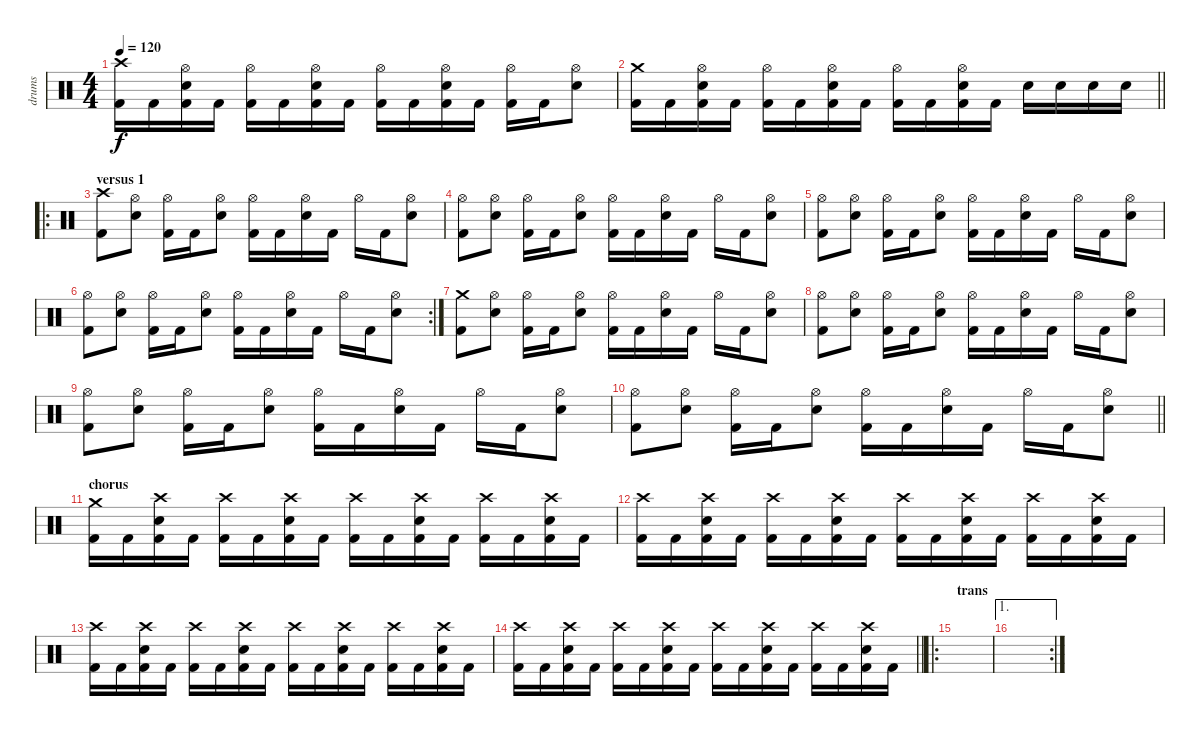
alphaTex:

\track ("drums" "drums") {instrument percussion}
\staff {score}
\articulation defaults
\ts (4 4)
\tempo 120
\clef neutral
\ks c
("Crash high (hit)" "Kick (hit) 2").16{dy f} "Kick (hit) 2".16 ("Hi-Hat (open)" "Snare (hit) 2" "Kick (hit) 2").16 "Kick (hit) 2".16 ("Hi-Hat (open)" "Kick (hit) 2").16 "Kick (hit) 2".16 ("Hi-Hat (open)" "Snare (hit) 2" "Kick (hit) 2").16 "Kick (hit) 2".16 ("Hi-Hat (open)" "Kick (hit) 2").16 "Kick (hit) 2".16 ("Hi-Hat (open)" "Snare (hit) 2" "Kick (hit) 2").16 "Kick (hit) 2".16 ("Hi-Hat (open)" "Kick (hit) 2").16 "Kick (hit) 2".16 ("Hi-Hat (open)" "Snare (hit) 2").8 |
\barLineRight lightlight
("Crash medium (hit)" "Kick (hit) 2").16 "Kick (hit) 2".16 ("Hi-Hat (open)" "Snare (hit) 2" "Kick (hit) 2").16 "Kick (hit) 2".16 ("Hi-Hat (open)" "Kick (hit) 2").16 "Kick (hit) 2".16 ("Hi-Hat (open)" "Snare (hit) 2" "Kick (hit) 2").16 "Kick (hit) 2".16 ("Hi-Hat (open)" "Kick (hit) 2").16 "Kick (hit) 2".16 ("Hi-Hat (open)" "Snare (hit) 2" "Kick (hit) 2").16 "Kick (hit) 2".16 "Snare (hit) 2".16 "Snare (hit) 2".16 "Snare (hit) 2".16 "Snare (hit) 2".16 |
\ro
\section ("" "versus 1")
("Crash high (hit)" "Kick (hit) 2").8 ("Hi-Hat (open)" "Snare (hit) 2").8 ("Hi-Hat (open)" "Kick (hit) 2").16 "Kick (hit) 2".16 ("Hi-Hat (open)" "Snare (hit) 2").8 ("Hi-Hat (open)" "Kick (hit) 2").16 "Kick (hit) 2".16 ("Hi-Hat (open)" "Snare (hit) 2").16 "Kick (hit) 2".16 "Hi-Hat (open)".16 "Kick (hit) 2".16 ("Hi-Hat (open)" "Snare (hit) 2").8 |
("Hi-Hat (open)" "Kick (hit) 2").8 ("Hi-Hat (open)" "Snare (hit) 2").8 ("Hi-Hat (open)" "Kick (hit) 2").16 "Kick (hit) 2".16 ("Hi-Hat (open)" "Snare (hit) 2").8 ("Hi-Hat (open)" "Kick (hit) 2").16 "Kick (hit) 2".16 ("Hi-Hat (open)" "Snare (hit) 2").16 "Kick (hit) 2".16 "Hi-Hat (open)".16 "Kick (hit) 2".16 ("Hi-Hat (open)" "Snare (hit) 2").8 |
("Hi-Hat (open)" "Kick (hit) 2").8 ("Hi-Hat (open)" "Snare (hit) 2").8 ("Hi-Hat (open)" "Kick (hit) 2").16 "Kick (hit) 2".16 ("Hi-Hat (open)" "Snare (hit) 2").8 ("Hi-Hat (open)" "Kick (hit) 2").16 "Kick (hit) 2".16 ("Hi-Hat (open)" "Snare (hit) 2").16 "Kick (hit) 2".16 "Hi-Hat (open)".16 "Kick (hit) 2".16 ("Hi-Hat (open)" "Snare (hit) 2").8 |
\rc 2
("Hi-Hat (open)" "Kick (hit) 2").8 ("Hi-Hat (open)" "Snare (hit) 2").8 ("Hi-Hat (open)" "Kick (hit) 2").16 "Kick (hit) 2".16 ("Hi-Hat (open)" "Snare (hit) 2").8 ("Hi-Hat (open)" "Kick (hit) 2").16 "Kick (hit) 2".16 ("Hi-Hat (open)" "Snare (hit) 2").16 "Kick (hit) 2".16 "Hi-Hat (open)".16 "Kick (hit) 2".16 ("Hi-Hat (open)" "Snare (hit) 2").8 |
("Crash medium (hit)" "Kick (hit) 2").8 ("Hi-Hat (open)" "Snare (hit) 2").8 ("Hi-Hat (open)" "Kick (hit) 2").16 "Kick (hit) 2".16 ("Hi-Hat (open)" "Snare (hit) 2").8 ("Hi-Hat (open)" "Kick (hit) 2").16 "Kick (hit) 2".16 ("Hi-Hat (open)" "Snare (hit) 2").16 "Kick (hit) 2".16 "Hi-Hat (open)".16 "Kick (hit) 2".16 ("Hi-Hat (open)" "Snare (hit) 2").8 |
("Hi-Hat (open)" "Kick (hit) 2").8 ("Hi-Hat (open)" "Snare (hit) 2").8 ("Hi-Hat (open)" "Kick (hit) 2").16 "Kick (hit) 2".16 ("Hi-Hat (open)" "Snare (hit) 2").8 ("Hi-Hat (open)" "Kick (hit) 2").16 "Kick (hit) 2".16 ("Hi-Hat (open)" "Snare (hit) 2").16 "Kick (hit) 2".16 "Hi-Hat (open)".16 "Kick (hit) 2".16 ("Hi-Hat (open)" "Snare (hit) 2").8 |
("Hi-Hat (open)" "Kick (hit) 2").8 ("Hi-Hat (open)" "Snare (hit) 2").8 ("Hi-Hat (open)" "Kick (hit) 2").16 "Kick (hit) 2".16 ("Hi-Hat (open)" "Snare (hit) 2").8 ("Hi-Hat (open)" "Kick (hit) 2").16 "Kick (hit) 2".16 ("Hi-Hat (open)" "Snare (hit) 2").16 "Kick (hit) 2".16 "Hi-Hat (open)".16 "Kick (hit) 2".16 ("Hi-Hat (open)" "Snare (hit) 2").8 |
\barLineRight lightlight
("Hi-Hat (open)" "Kick (hit) 2").8 ("Hi-Hat (open)" "Snare (hit) 2").8 ("Hi-Hat (open)" "Kick (hit) 2").16 "Kick (hit) 2".16 ("Hi-Hat (open)" "Snare (hit) 2").8 ("Hi-Hat (open)" "Kick (hit) 2").16 "Kick (hit) 2".16 ("Hi-Hat (open)" "Snare (hit) 2").16 "Kick (hit) 2".16 "Hi-Hat (open)".16 "Kick (hit) 2".16 ("Hi-Hat (open)" "Snare (hit) 2").8 |
\section ("" "chorus")
("Crash medium (hit)" "Kick (hit) 2").16 "Kick (hit) 2".16 ("Crash high (hit)" "Snare (hit) 2" "Kick (hit) 2").16 "Kick (hit) 2".16 ("Crash high (hit)" "Kick (hit) 2").16 "Kick (hit) 2".16 ("Crash high (hit)" "Snare (hit) 2" "Kick (hit) 2").16 "Kick (hit) 2".16 ("Crash high (hit)" "Kick (hit) 2").16 "Kick (hit) 2".16 ("Crash high (hit)" "Snare (hit) 2" "Kick (hit) 2").16 "Kick (hit) 2".16 ("Crash high (hit)" "Kick (hit) 2").16 "Kick (hit) 2".16 ("Crash high (hit)" "Snare (hit) 2" "Kick (hit) 2").16 "Kick (hit) 2".16 |
("Crash high (hit)" "Kick (hit) 2").16 "Kick (hit) 2".16 ("Crash high (hit)" "Snare (hit) 2" "Kick (hit) 2").16 "Kick (hit) 2".16 ("Crash high (hit)" "Kick (hit) 2").16 "Kick (hit) 2".16 ("Crash high (hit)" "Snare (hit) 2" "Kick (hit) 2").16 "Kick (hit) 2".16 ("Crash high (hit)" "Kick (hit) 2").16 "Kick (hit) 2".16 ("Crash high (hit)" "Snare (hit) 2" "Kick (hit) 2").16 "Kick (hit) 2".16 ("Crash high (hit)" "Kick (hit) 2").16 "Kick (hit) 2".16 ("Crash high (hit)" "Snare (hit) 2" "Kick (hit) 2").16 "Kick (hit) 2".16 |
("Crash high (hit)" "Kick (hit) 2").16 "Kick (hit) 2".16 ("Crash high (hit)" "Snare (hit) 2" "Kick (hit) 2").16 "Kick (hit) 2".16 ("Crash high (hit)" "Kick (hit) 2").16 "Kick (hit) 2".16 ("Crash high (hit)" "Snare (hit) 2" "Kick (hit) 2").16 "Kick (hit) 2".16 ("Crash high (hit)" "Kick (hit) 2").16 "Kick (hit) 2".16 ("Crash high (hit)" "Snare (hit) 2" "Kick (hit) 2").16 "Kick (hit) 2".16 ("Crash high (hit)" "Kick (hit) 2").16 "Kick (hit) 2".16 ("Crash high (hit)" "Snare (hit) 2" "Kick (hit) 2").16 "Kick (hit) 2".16 |
\barLineRight lightlight
("Crash high (hit)" "Kick (hit) 2").16 "Kick (hit) 2".16 ("Crash high (hit)" "Snare (hit) 2" "Kick (hit) 2").16 "Kick (hit) 2".16 ("Crash high (hit)" "Kick (hit) 2").16 "Kick (hit) 2".16 ("Crash high (hit)" "Snare (hit) 2" "Kick (hit) 2").16 "Kick (hit) 2".16 ("Crash high (hit)" "Kick (hit) 2").16 "Kick (hit) 2".16 ("Crash high (hit)" "Snare (hit) 2" "Kick (hit) 2").16 "Kick (hit) 2".16 ("Crash high (hit)" "Kick (hit) 2").16 "Kick (hit) 2".16 ("Crash high (hit)" "Snare (hit) 2" "Kick (hit) 2").16 "Kick (hit) 2".16 |
\ro
\section ("" "trans")
|
\ae 1
\rc 2
